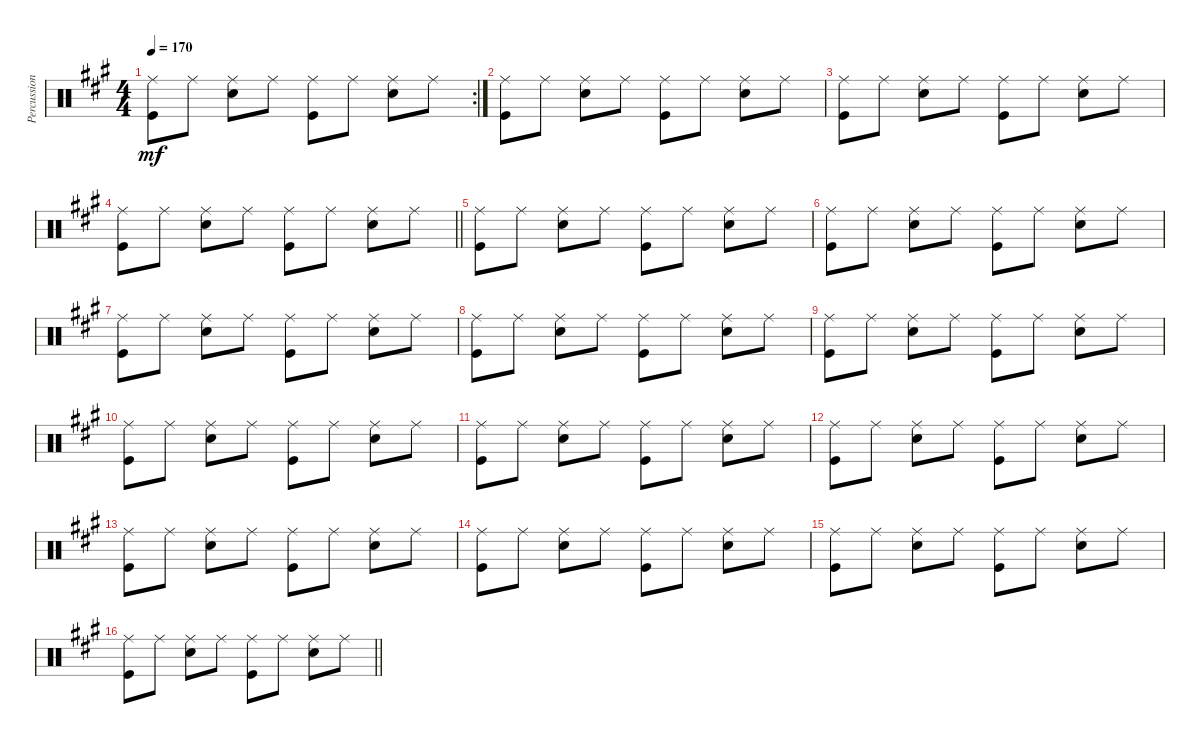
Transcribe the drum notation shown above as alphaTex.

\track ("Percussion" "Percussion") {instrument percussion}
\staff {score}
\articulation defaults
\rc 2
\ts (4 4)
\tempo 170
\clef neutral
\ks a
("Ride (middle)" "Kick (hit)").8{dy mf} "Ride (middle)".8 ("Ride (middle)" "Snare (hit) 2").8 "Ride (middle)".8 ("Ride (middle)" "Kick (hit)").8 "Ride (middle)".8 ("Ride (middle)" "Snare (hit) 2").8 "Ride (middle)".8 |
("Ride (middle)" "Kick (hit)").8 "Ride (middle)".8 ("Ride (middle)" "Snare (hit) 2").8 "Ride (middle)".8 ("Ride (middle)" "Kick (hit)").8 "Ride (middle)".8 ("Ride (middle)" "Snare (hit) 2").8 "Ride (middle)".8 |
("Ride (middle)" "Kick (hit)").8 "Ride (middle)".8 ("Ride (middle)" "Snare (hit) 2").8 "Ride (middle)".8 ("Ride (middle)" "Kick (hit)").8 "Ride (middle)".8 ("Ride (middle)" "Snare (hit) 2").8 "Ride (middle)".8 |
\barLineRight lightlight
("Ride (middle)" "Kick (hit)").8 "Ride (middle)".8 ("Ride (middle)" "Snare (hit) 2").8 "Ride (middle)".8 ("Ride (middle)" "Kick (hit)").8 "Ride (middle)".8 ("Ride (middle)" "Snare (hit) 2").8 "Ride (middle)".8 |
("Ride (middle)" "Kick (hit)").8 "Ride (middle)".8 ("Ride (middle)" "Snare (hit) 2").8 "Ride (middle)".8 ("Ride (middle)" "Kick (hit)").8 "Ride (middle)".8 ("Ride (middle)" "Snare (hit) 2").8 "Ride (middle)".8 |
("Ride (middle)" "Kick (hit)").8 "Ride (middle)".8 ("Ride (middle)" "Snare (hit) 2").8 "Ride (middle)".8 ("Ride (middle)" "Kick (hit)").8 "Ride (middle)".8 ("Ride (middle)" "Snare (hit) 2").8 "Ride (middle)".8 |
("Ride (middle)" "Kick (hit)").8 "Ride (middle)".8 ("Ride (middle)" "Snare (hit) 2").8 "Ride (middle)".8 ("Ride (middle)" "Kick (hit)").8 "Ride (middle)".8 ("Ride (middle)" "Snare (hit) 2").8 "Ride (middle)".8 |
("Ride (middle)" "Kick (hit)").8 "Ride (middle)".8 ("Ride (middle)" "Snare (hit) 2").8 "Ride (middle)".8 ("Ride (middle)" "Kick (hit)").8 "Ride (middle)".8 ("Ride (middle)" "Snare (hit) 2").8 "Ride (middle)".8 |
("Ride (middle)" "Kick (hit)").8 "Ride (middle)".8 ("Ride (middle)" "Snare (hit) 2").8 "Ride (middle)".8 ("Ride (middle)" "Kick (hit)").8 "Ride (middle)".8 ("Ride (middle)" "Snare (hit) 2").8 "Ride (middle)".8 |
("Ride (middle)" "Kick (hit)").8 "Ride (middle)".8 ("Ride (middle)" "Snare (hit) 2").8 "Ride (middle)".8 ("Ride (middle)" "Kick (hit)").8 "Ride (middle)".8 ("Ride (middle)" "Snare (hit) 2").8 "Ride (middle)".8 |
("Ride (middle)" "Kick (hit)").8 "Ride (middle)".8 ("Ride (middle)" "Snare (hit) 2").8 "Ride (middle)".8 ("Ride (middle)" "Kick (hit)").8 "Ride (middle)".8 ("Ride (middle)" "Snare (hit) 2").8 "Ride (middle)".8 |
("Ride (middle)" "Kick (hit)").8 "Ride (middle)".8 ("Ride (middle)" "Snare (hit) 2").8 "Ride (middle)".8 ("Ride (middle)" "Kick (hit)").8 "Ride (middle)".8 ("Ride (middle)" "Snare (hit) 2").8 "Ride (middle)".8 |
("Ride (middle)" "Kick (hit)").8 "Ride (middle)".8 ("Ride (middle)" "Snare (hit) 2").8 "Ride (middle)".8 ("Ride (middle)" "Kick (hit)").8 "Ride (middle)".8 ("Ride (middle)" "Snare (hit) 2").8 "Ride (middle)".8 |
("Ride (middle)" "Kick (hit)").8 "Ride (middle)".8 ("Ride (middle)" "Snare (hit) 2").8 "Ride (middle)".8 ("Ride (middle)" "Kick (hit)").8 "Ride (middle)".8 ("Ride (middle)" "Snare (hit) 2").8 "Ride (middle)".8 |
("Ride (middle)" "Kick (hit)").8 "Ride (middle)".8 ("Ride (middle)" "Snare (hit) 2").8 "Ride (middle)".8 ("Ride (middle)" "Kick (hit)").8 "Ride (middle)".8 ("Ride (middle)" "Snare (hit) 2").8 "Ride (middle)".8 |
\barLineRight lightlight
("Ride (middle)" "Kick (hit)").8 "Ride (middle)".8 ("Ride (middle)" "Snare (hit) 2").8 "Ride (middle)".8 ("Ride (middle)" "Kick (hit)").8 "Ride (middle)".8 ("Ride (middle)" "Snare (hit) 2").8 "Ride (middle)".8
